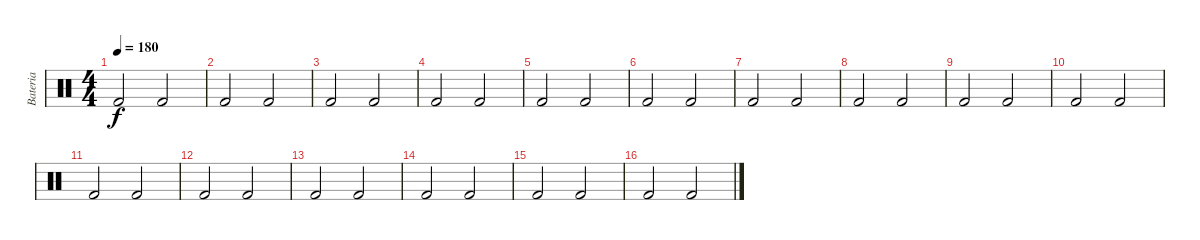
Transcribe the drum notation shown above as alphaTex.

\track ("Bateria" "Bateria") {instrument percussion}
\staff {score}
\articulation defaults
\ts (4 4)
\tempo 180
\clef neutral
\ks c "Kick (hit) 2".2{dy f} "Kick (hit) 2".2
|
"Kick (hit) 2".2 "Kick (hit) 2".2 |
"Kick (hit) 2".2 "Kick (hit) 2".2 |
"Kick (hit) 2".2 "Kick (hit) 2".2 |
"Kick (hit) 2".2 "Kick (hit) 2".2 |
"Kick (hit) 2".2 "Kick (hit) 2".2 |
"Kick (hit) 2".2 "Kick (hit) 2".2 |
"Kick (hit) 2".2 "Kick (hit) 2".2 |
"Kick (hit) 2".2 "Kick (hit) 2".2 |
"Kick (hit) 2".2 "Kick (hit) 2".2 |
"Kick (hit) 2".2 "Kick (hit) 2".2 |
"Kick (hit) 2".2 "Kick (hit) 2".2 |
"Kick (hit) 2".2 "Kick (hit) 2".2 |
"Kick (hit) 2".2 "Kick (hit) 2".2 |
"Kick (hit) 2".2 "Kick (hit) 2".2 |
"Kick (hit) 2".2 "Kick (hit) 2".2
